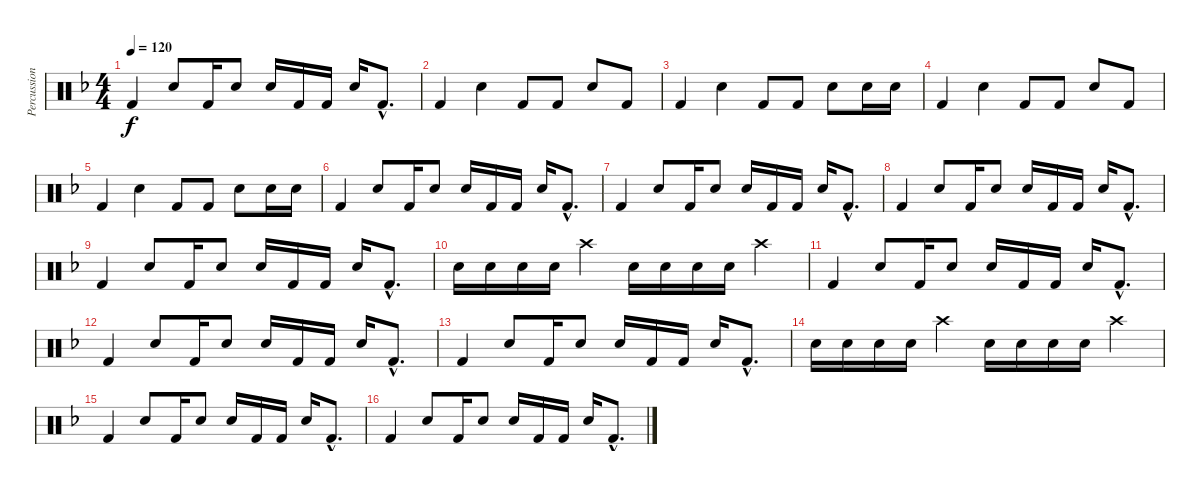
\track ("Percussion" "Percussion") {instrument percussion}
\staff {score}
\articulation defaults
\ts (4 4)
\tempo 120
\clef neutral
\ks dminor "Kick (hit) 2".4{dy f} "Snare (hit) 2".8 "Kick (hit) 2".16 "Snare (hit) 2".8 "Snare (hit) 2".16 "Kick (hit) 2".16 "Kick (hit) 2".16 "Snare (hit) 2".16 "Kick (hit) 2"{hac}.8{d}
|
"Kick (hit) 2".4 "Snare (hit) 2".4 "Kick (hit) 2".8 "Kick (hit) 2".8 "Snare (hit) 2".8 "Kick (hit) 2".8 |
"Kick (hit) 2".4 "Snare (hit) 2".4 "Kick (hit) 2".8 "Kick (hit) 2".8 "Snare (hit) 2".8 "Snare (hit) 2".16 "Snare (hit) 2".16 |
"Kick (hit) 2".4 "Snare (hit) 2".4 "Kick (hit) 2".8 "Kick (hit) 2".8 "Snare (hit) 2".8 "Kick (hit) 2".8 |
"Kick (hit) 2".4 "Snare (hit) 2".4 "Kick (hit) 2".8 "Kick (hit) 2".8 "Snare (hit) 2".8 "Snare (hit) 2".16 "Snare (hit) 2".16 |
"Kick (hit) 2".4 "Snare (hit) 2".8 "Kick (hit) 2".16 "Snare (hit) 2".8 "Snare (hit) 2".16 "Kick (hit) 2".16 "Kick (hit) 2".16 "Snare (hit) 2".16 "Kick (hit) 2"{hac}.8{d} |
"Kick (hit) 2".4 "Snare (hit) 2".8 "Kick (hit) 2".16 "Snare (hit) 2".8 "Snare (hit) 2".16 "Kick (hit) 2".16 "Kick (hit) 2".16 "Snare (hit) 2".16 "Kick (hit) 2"{hac}.8{d} |
"Kick (hit) 2".4 "Snare (hit) 2".8 "Kick (hit) 2".16 "Snare (hit) 2".8 "Snare (hit) 2".16 "Kick (hit) 2".16 "Kick (hit) 2".16 "Snare (hit) 2".16 "Kick (hit) 2"{hac}.8{d} |
"Kick (hit) 2".4 "Snare (hit) 2".8 "Kick (hit) 2".16 "Snare (hit) 2".8 "Snare (hit) 2".16 "Kick (hit) 2".16 "Kick (hit) 2".16 "Snare (hit) 2".16 "Kick (hit) 2"{hac}.8{d} |
"Snare (hit) 2".16 "Snare (hit) 2".16 "Snare (hit) 2".16 "Snare (hit) 2".16 "Crash high (hit)".4 "Snare (hit) 2".16 "Snare (hit) 2".16 "Snare (hit) 2".16 "Snare (hit) 2".16 "Crash high (hit)".4 |
"Kick (hit) 2".4 "Snare (hit) 2".8 "Kick (hit) 2".16 "Snare (hit) 2".8 "Snare (hit) 2".16 "Kick (hit) 2".16 "Kick (hit) 2".16 "Snare (hit) 2".16 "Kick (hit) 2"{hac}.8{d} |
"Kick (hit) 2".4 "Snare (hit) 2".8 "Kick (hit) 2".16 "Snare (hit) 2".8 "Snare (hit) 2".16 "Kick (hit) 2".16 "Kick (hit) 2".16 "Snare (hit) 2".16 "Kick (hit) 2"{hac}.8{d} |
"Kick (hit) 2".4 "Snare (hit) 2".8 "Kick (hit) 2".16 "Snare (hit) 2".8 "Snare (hit) 2".16 "Kick (hit) 2".16 "Kick (hit) 2".16 "Snare (hit) 2".16 "Kick (hit) 2"{hac}.8{d} |
"Snare (hit) 2".16 "Snare (hit) 2".16 "Snare (hit) 2".16 "Snare (hit) 2".16 "Crash high (hit)".4 "Snare (hit) 2".16 "Snare (hit) 2".16 "Snare (hit) 2".16 "Snare (hit) 2".16 "Crash high (hit)".4 |
"Kick (hit) 2".4 "Snare (hit) 2".8 "Kick (hit) 2".16 "Snare (hit) 2".8 "Snare (hit) 2".16 "Kick (hit) 2".16 "Kick (hit) 2".16 "Snare (hit) 2".16 "Kick (hit) 2"{hac}.8{d} |
"Kick (hit) 2".4 "Snare (hit) 2".8 "Kick (hit) 2".16 "Snare (hit) 2".8 "Snare (hit) 2".16 "Kick (hit) 2".16 "Kick (hit) 2".16 "Snare (hit) 2".16 "Kick (hit) 2"{hac}.8{d}
